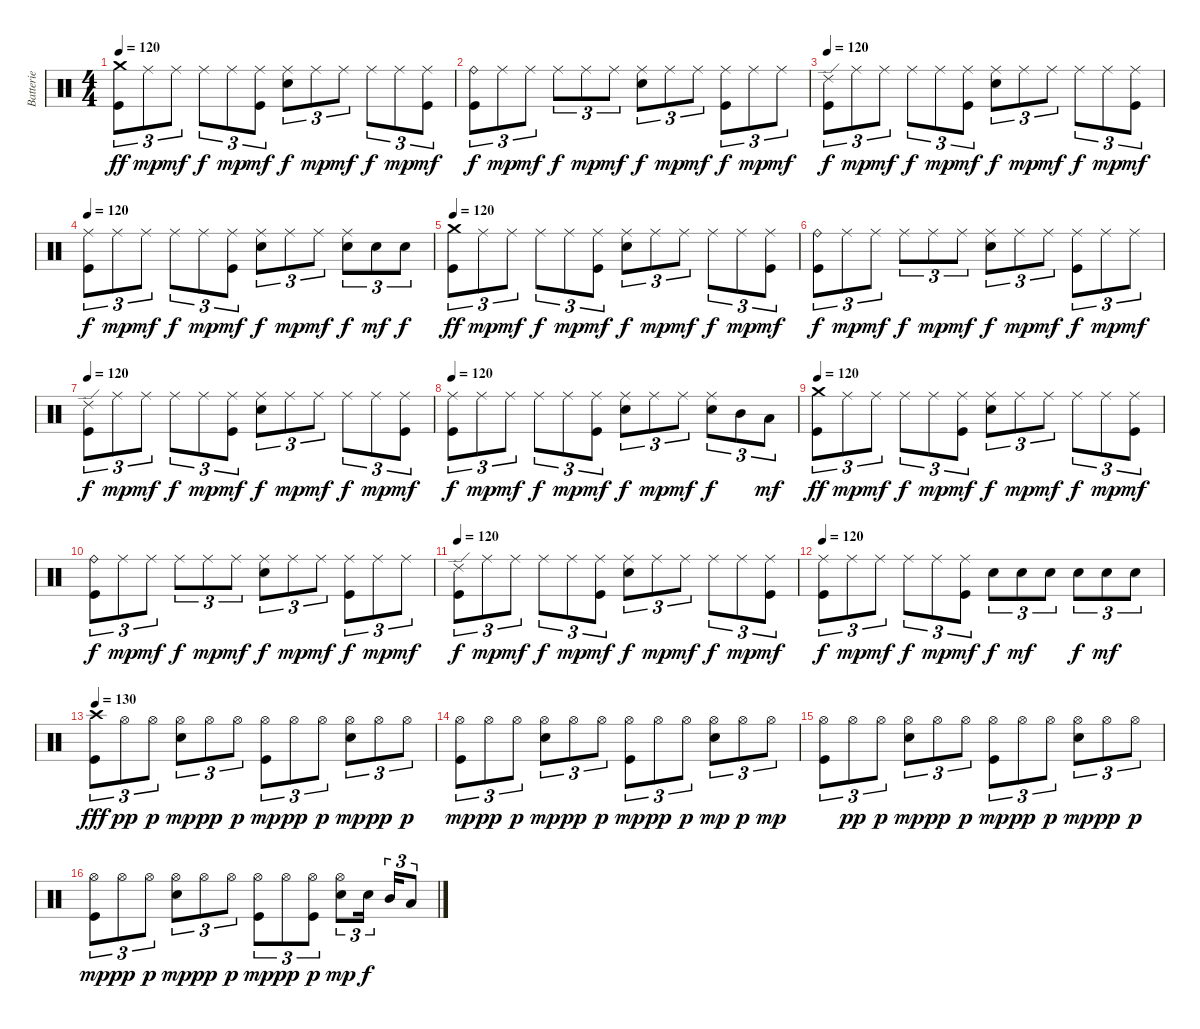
\track ("Batterie" "Batterie") {instrument percussion}
\staff {score}
\articulation defaults
\ts (4 4)
\tempo 120
\clef neutral
\ks c
("Crash medium (hit)" "Kick (hit)").8{tu (3 2) dy ff} "Ride (middle)".8{tu (3 2) dy mp} "Ride (middle)".8{tu (3 2) dy mf} "Ride (middle)".8{tu (3 2) dy f} "Ride (middle)".8{tu (3 2) dy mp} ("Ride (middle)" "Kick (hit)").8{tu (3 2) dy mf} ("Ride (middle)" "Snare (hit) 2").8{tu (3 2) dy f} "Ride (middle)".8{tu (3 2) dy mp} "Ride (middle)".8{tu (3 2) dy mf} "Ride (middle)".8{tu (3 2) dy f} "Ride (middle)".8{tu (3 2) dy mp} ("Ride (middle)" "Kick (hit)").8{tu (3 2) dy mf} |
("Ride (bell)" "Kick (hit)").8{tu (3 2) dy f} "Ride (middle)".8{tu (3 2) dy mp} "Ride (middle)".8{tu (3 2) dy mf} "Ride (middle)".8{tu (3 2) dy f} "Ride (middle)".8{tu (3 2) dy mp} "Ride (middle)".8{tu (3 2) dy mf} ("Ride (middle)" "Snare (hit) 2").8{tu (3 2) dy f} "Ride (middle)".8{tu (3 2) dy mp} "Ride (middle)".8{tu (3 2) dy mf} ("Ride (middle)" "Kick (hit)").8{tu (3 2) dy f} "Ride (middle)".8{tu (3 2) dy mp} "Ride (middle)".8{tu (3 2) dy mf} |
\tempo 120
("Ride (edge) 2" "Kick (hit)").8{tu (3 2) dy f} "Ride (middle)".8{tu (3 2) dy mp} "Ride (middle)".8{tu (3 2) dy mf} "Ride (middle)".8{tu (3 2) dy f} "Ride (middle)".8{tu (3 2) dy mp} ("Ride (middle)" "Kick (hit)").8{tu (3 2) dy mf} ("Ride (middle)" "Snare (hit) 2").8{tu (3 2) dy f} "Ride (middle)".8{tu (3 2) dy mp} "Ride (middle)".8{tu (3 2) dy mf} "Ride (middle)".8{tu (3 2) dy f} "Ride (middle)".8{tu (3 2) dy mp} ("Ride (middle)" "Kick (hit)").8{tu (3 2) dy mf} |
\tempo 120
("Ride (middle)" "Kick (hit)").8{tu (3 2) dy f} "Ride (middle)".8{tu (3 2) dy mp} "Ride (middle)".8{tu (3 2) dy mf} "Ride (middle)".8{tu (3 2) dy f} "Ride (middle)".8{tu (3 2) dy mp} ("Ride (middle)" "Kick (hit)").8{tu (3 2) dy mf} ("Ride (middle)" "Snare (hit) 2").8{tu (3 2) dy f} "Ride (middle)".8{tu (3 2) dy mp} "Ride (middle)".8{tu (3 2) dy mf} ("Ride (middle)" "Snare (hit) 2").8{tu (3 2) dy f} "Snare (hit) 2".8{tu (3 2) dy mf} "Snare (hit) 2".8{tu (3 2) dy f} |
\tempo 120
("Crash medium (hit)" "Kick (hit)").8{tu (3 2) dy ff} "Ride (middle)".8{tu (3 2) dy mp} "Ride (middle)".8{tu (3 2) dy mf} "Ride (middle)".8{tu (3 2) dy f} "Ride (middle)".8{tu (3 2) dy mp} ("Ride (middle)" "Kick (hit)").8{tu (3 2) dy mf} ("Ride (middle)" "Snare (hit) 2").8{tu (3 2) dy f} "Ride (middle)".8{tu (3 2) dy mp} "Ride (middle)".8{tu (3 2) dy mf} "Ride (middle)".8{tu (3 2) dy f} "Ride (middle)".8{tu (3 2) dy mp} ("Ride (middle)" "Kick (hit)").8{tu (3 2) dy mf} |
("Ride (bell)" "Kick (hit)").8{tu (3 2) dy f} "Ride (middle)".8{tu (3 2) dy mp} "Ride (middle)".8{tu (3 2) dy mf} "Ride (middle)".8{tu (3 2) dy f} "Ride (middle)".8{tu (3 2) dy mp} "Ride (middle)".8{tu (3 2) dy mf} ("Ride (middle)" "Snare (hit) 2").8{tu (3 2) dy f} "Ride (middle)".8{tu (3 2) dy mp} "Ride (middle)".8{tu (3 2) dy mf} ("Ride (middle)" "Kick (hit)").8{tu (3 2) dy f} "Ride (middle)".8{tu (3 2) dy mp} "Ride (middle)".8{tu (3 2) dy mf} |
\tempo 120
("Ride (edge) 2" "Kick (hit)").8{tu (3 2) dy f} "Ride (middle)".8{tu (3 2) dy mp} "Ride (middle)".8{tu (3 2) dy mf} "Ride (middle)".8{tu (3 2) dy f} "Ride (middle)".8{tu (3 2) dy mp} ("Ride (middle)" "Kick (hit)").8{tu (3 2) dy mf} ("Ride (middle)" "Snare (hit) 2").8{tu (3 2) dy f} "Ride (middle)".8{tu (3 2) dy mp} "Ride (middle)".8{tu (3 2) dy mf} "Ride (middle)".8{tu (3 2) dy f} "Ride (middle)".8{tu (3 2) dy mp} ("Ride (middle)" "Kick (hit)").8{tu (3 2) dy mf} |
\tempo 120
("Ride (middle)" "Kick (hit)").8{tu (3 2) dy f} "Ride (middle)".8{tu (3 2) dy mp} "Ride (middle)".8{tu (3 2) dy mf} "Ride (middle)".8{tu (3 2) dy f} "Ride (middle)".8{tu (3 2) dy mp} ("Ride (middle)" "Kick (hit)").8{tu (3 2) dy mf} ("Ride (middle)" "Snare (hit) 2").8{tu (3 2) dy f} "Ride (middle)".8{tu (3 2) dy mp} "Ride (middle)".8{tu (3 2) dy mf} ("Ride (middle)" "Snare (hit) 2").8{tu (3 2) dy f} "Mid Tom (hit)".8{tu (3 2)} "Low Tom (hit)".8{tu (3 2) dy mf} |
\tempo 120
("Crash medium (hit)" "Kick (hit)").8{tu (3 2) dy ff} "Ride (middle)".8{tu (3 2) dy mp} "Ride (middle)".8{tu (3 2) dy mf} "Ride (middle)".8{tu (3 2) dy f} "Ride (middle)".8{tu (3 2) dy mp} ("Ride (middle)" "Kick (hit)").8{tu (3 2) dy mf} ("Ride (middle)" "Snare (hit) 2").8{tu (3 2) dy f} "Ride (middle)".8{tu (3 2) dy mp} "Ride (middle)".8{tu (3 2) dy mf} "Ride (middle)".8{tu (3 2) dy f} "Ride (middle)".8{tu (3 2) dy mp} ("Ride (middle)" "Kick (hit)").8{tu (3 2) dy mf} |
("Ride (bell)" "Kick (hit)").8{tu (3 2) dy f} "Ride (middle)".8{tu (3 2) dy mp} "Ride (middle)".8{tu (3 2) dy mf} "Ride (middle)".8{tu (3 2) dy f} "Ride (middle)".8{tu (3 2) dy mp} "Ride (middle)".8{tu (3 2) dy mf} ("Ride (middle)" "Snare (hit) 2").8{tu (3 2) dy f} "Ride (middle)".8{tu (3 2) dy mp} "Ride (middle)".8{tu (3 2) dy mf} ("Ride (middle)" "Kick (hit)").8{tu (3 2) dy f} "Ride (middle)".8{tu (3 2) dy mp} "Ride (middle)".8{tu (3 2) dy mf} |
\tempo 120
("Ride (edge) 2" "Kick (hit)").8{tu (3 2) dy f} "Ride (middle)".8{tu (3 2) dy mp} "Ride (middle)".8{tu (3 2) dy mf} "Ride (middle)".8{tu (3 2) dy f} "Ride (middle)".8{tu (3 2) dy mp} ("Ride (middle)" "Kick (hit)").8{tu (3 2) dy mf} ("Ride (middle)" "Snare (hit) 2").8{tu (3 2) dy f} "Ride (middle)".8{tu (3 2) dy mp} "Ride (middle)".8{tu (3 2) dy mf} "Ride (middle)".8{tu (3 2) dy f} "Ride (middle)".8{tu (3 2) dy mp} ("Ride (middle)" "Kick (hit)").8{tu (3 2) dy mf} |
\tempo 120
("Ride (middle)" "Kick (hit)").8{tu (3 2) dy f} "Ride (middle)".8{tu (3 2) dy mp} "Ride (middle)".8{tu (3 2) dy mf} "Ride (middle)".8{tu (3 2) dy f} "Ride (middle)".8{tu (3 2) dy mp} ("Ride (middle)" "Kick (hit)").8{tu (3 2) dy mf} "Snare (hit) 2".8{tu (3 2) dy f} "Snare (hit) 2".8{tu (3 2) dy mf} "Snare (hit) 2".8{tu (3 2)} "Snare (hit) 2".8{tu (3 2) dy f} "Snare (hit) 2".8{tu (3 2) dy mf} "Snare (hit) 2".8{tu (3 2)} |
\tempo 130
("Crash high (hit)" "Kick (hit)").8{tu (3 2) dy fff} "Hi-Hat (open)".8{tu (3 2) dy pp} "Hi-Hat (open)".8{tu (3 2) dy p} ("Hi-Hat (open)" "Snare (hit) 2").8{tu (3 2) dy mp} "Hi-Hat (open)".8{tu (3 2) dy pp} "Hi-Hat (open)".8{tu (3 2) dy p} ("Hi-Hat (open)" "Kick (hit)").8{tu (3 2) dy mp} "Hi-Hat (open)".8{tu (3 2) dy pp} "Hi-Hat (open)".8{tu (3 2) dy p} ("Hi-Hat (open)" "Snare (hit) 2").8{tu (3 2) dy mp} "Hi-Hat (open)".8{tu (3 2) dy pp} "Hi-Hat (open)".8{tu (3 2) dy p} |
("Hi-Hat (open)" "Kick (hit)").8{tu (3 2) dy mp} "Hi-Hat (open)".8{tu (3 2) dy pp} "Hi-Hat (open)".8{tu (3 2) dy p} ("Hi-Hat (open)" "Snare (hit) 2").8{tu (3 2) dy mp} "Hi-Hat (open)".8{tu (3 2) dy pp} "Hi-Hat (open)".8{tu (3 2) dy p} ("Hi-Hat (open)" "Kick (hit)").8{tu (3 2) dy mp} "Hi-Hat (open)".8{tu (3 2) dy pp} "Hi-Hat (open)".8{tu (3 2) dy p} ("Hi-Hat (open)" "Snare (hit) 2").8{tu (3 2) dy mp} "Hi-Hat (open)".8{tu (3 2) dy p} "Hi-Hat (open)".8{tu (3 2) dy mp} |
("Hi-Hat (open)" "Kick (hit)").8{tu (3 2)} "Hi-Hat (open)".8{tu (3 2) dy pp} "Hi-Hat (open)".8{tu (3 2) dy p} ("Hi-Hat (open)" "Snare (hit) 2").8{tu (3 2) dy mp} "Hi-Hat (open)".8{tu (3 2) dy pp} "Hi-Hat (open)".8{tu (3 2) dy p} ("Hi-Hat (open)" "Kick (hit)").8{tu (3 2) dy mp} "Hi-Hat (open)".8{tu (3 2) dy pp} "Hi-Hat (open)".8{tu (3 2) dy p} ("Hi-Hat (open)" "Snare (hit) 2").8{tu (3 2) dy mp} "Hi-Hat (open)".8{tu (3 2) dy pp} "Hi-Hat (open)".8{tu (3 2) dy p} |
("Hi-Hat (open)" "Kick (hit)").8{tu (3 2) dy mp} "Hi-Hat (open)".8{tu (3 2) dy pp} "Hi-Hat (open)".8{tu (3 2) dy p} ("Hi-Hat (open)" "Snare (hit) 2").8{tu (3 2) dy mp} "Hi-Hat (open)".8{tu (3 2) dy pp} "Hi-Hat (open)".8{tu (3 2) dy p} ("Hi-Hat (open)" "Kick (hit)").8{tu (3 2) dy mp} "Hi-Hat (open)".8{tu (3 2) dy pp} ("Hi-Hat (open)" "Kick (hit)").8{tu (3 2) dy p} ("Hi-Hat (open)" "Snare (hit) 2").8{tu (3 2) dy mp} "Snare (hit) 2".16{tu (3 2) dy f} "Mid Tom (hit)".16{tu (3 2)} "Low Tom (hit)".8{tu (3 2)}
